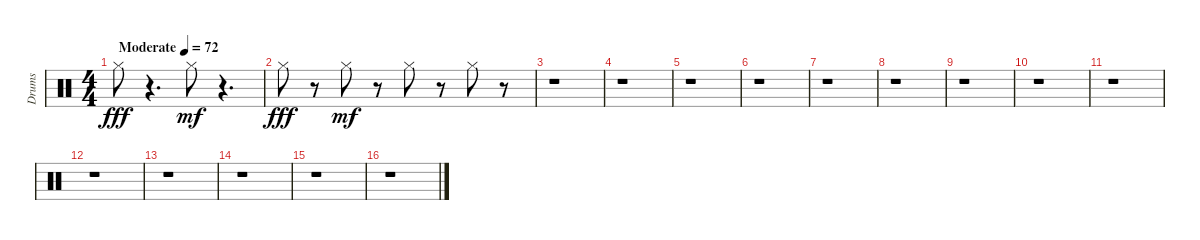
\track ("Drums" "Drums") {instrument percussion}
\staff {score}
\articulation defaults
\ts (4 4)
\tempo (72 "Moderate")
\clef neutral
\ks c "Hi-Hat (closed)".8{dy fff}
r.4{d} "Hi-Hat (closed)".8{dy mf} r.4{d} |
"Hi-Hat (closed)".8{dy fff} r.8 "Hi-Hat (closed)".8{dy mf} r.8 "Hi-Hat (closed)".8 r.8 "Hi-Hat (closed)".8 r.8 |
r.1 |
r.1 |
r.1 |
r.1 |
r.1 |
r.1 |
r.1 |
r.1 |
r.1 |
r.1 |
r.1 |
r.1 |
r.1 |
r.1
